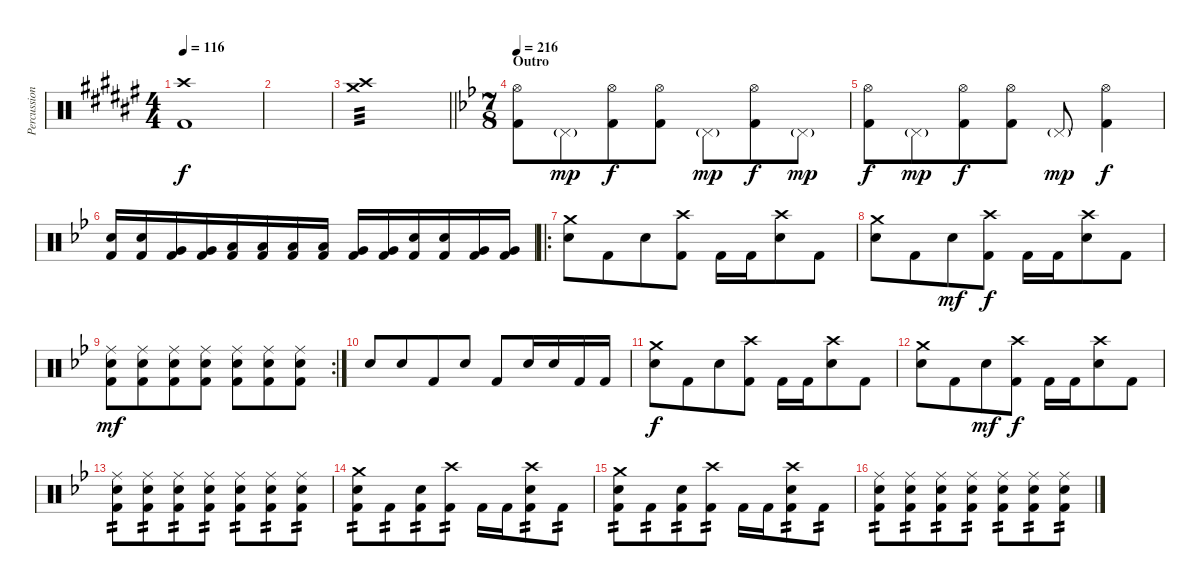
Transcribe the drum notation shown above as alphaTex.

\track ("Percussion" "Percussion") {instrument percussion}
\staff {score}
\articulation defaults
\ts (4 4)
\tempo 116
\clef neutral
\ks d#minor
("Crash high (hit)" "Kick (hit) 2").1{dy f} |
|
\barLineRight lightlight
("Crash high (hit)" "Crash medium (hit)").1{tp 3 volume 16} |
\ts (7 8)
\section ("" "Outro")
\tempo 216
\ks gminor
("Hi-Hat (open)" "Kick (hit) 2").8 "Pedal Hi-Hat (hit)"{g}.8{dy mp} ("Hi-Hat (open)" "Kick (hit) 2").8{dy f} ("Hi-Hat (open)" "Kick (hit) 2").8 "Pedal Hi-Hat (hit)"{g}.8{dy mp} ("Hi-Hat (open)" "Kick (hit) 2").8{dy f} "Pedal Hi-Hat (hit)"{g}.8{dy mp} |
("Hi-Hat (open)" "Kick (hit) 2").8{dy f} "Pedal Hi-Hat (hit)"{g}.8{dy mp} ("Hi-Hat (open)" "Kick (hit) 2").8{dy f} ("Hi-Hat (open)" "Kick (hit) 2").8 "Pedal Hi-Hat (hit)"{g}.8{dy mp} ("Hi-Hat (open)" "Kick (hit) 2").4{dy f} |
("Electric Snare (hit)" "Kick (hit) 2").16 ("Electric Snare (hit)" "Kick (hit) 2").16 ("Very Low Tom (hit)" "Kick (hit) 2").16 ("Very Low Tom (hit)" "Kick (hit) 2").16 ("Low Floor Tom (hit)" "Kick (hit) 2").16 ("Low Floor Tom (hit)" "Kick (hit) 2").16 ("Low Floor Tom (hit)" "Kick (hit) 2").16 ("Low Floor Tom (hit)" "Kick (hit) 2").16 ("Very Low Tom (hit)" "Kick (hit) 2").16 ("Very Low Tom (hit)" "Kick (hit) 2").16 ("Electric Snare (hit)" "Kick (hit) 2").16 ("Electric Snare (hit)" "Kick (hit) 2").16 ("Very Low Tom (hit)" "Kick (hit) 2").16 ("Very Low Tom (hit)" "Kick (hit) 2").16 |
\ro
("Crash medium (hit)" "Electric Snare (hit)").8 "Kick (hit) 2".8 "Electric Snare (hit)".8 ("Crash high (hit)" "Kick (hit) 2").8 "Kick (hit) 2".16 "Kick (hit) 2".16 ("Crash high (hit)" "Electric Snare (hit)").8 "Kick (hit) 2".8 |
("Crash medium (hit)" "Electric Snare (hit)").8 "Kick (hit) 2".8 "Electric Snare (hit)".8{dy mf} ("Crash high (hit)" "Kick (hit) 2").8{dy f} "Kick (hit) 2".16 "Kick (hit) 2".16 ("Crash high (hit)" "Electric Snare (hit)").8 "Kick (hit) 2".8 |
\rc 2
("Ride (middle)" "Electric Snare (hit)" "Kick (hit) 2").8{dy mf} ("Ride (middle)" "Electric Snare (hit)" "Kick (hit) 2").8 ("Ride (middle)" "Electric Snare (hit)" "Kick (hit) 2").8 ("Ride (middle)" "Electric Snare (hit)" "Kick (hit) 2").8 ("Ride (middle)" "Electric Snare (hit)" "Kick (hit) 2").8 ("Ride (middle)" "Electric Snare (hit)" "Kick (hit) 2").8 ("Ride (middle)" "Electric Snare (hit)" "Kick (hit) 2").8 |
"Electric Snare (hit)".8 "Electric Snare (hit)".8 "Kick (hit) 2".8 "Electric Snare (hit)".8 "Kick (hit) 2".8 "Electric Snare (hit)".16 "Electric Snare (hit)".16 "Kick (hit) 2".16 "Kick (hit) 2".16 |
("Crash medium (hit)" "Electric Snare (hit)").8{dy f} "Kick (hit) 2".8 "Electric Snare (hit)".8 ("Crash high (hit)" "Kick (hit) 2").8 "Kick (hit) 2".16 "Kick (hit) 2".16 ("Crash high (hit)" "Electric Snare (hit)").8 "Kick (hit) 2".8 |
("Crash medium (hit)" "Electric Snare (hit)").8 "Kick (hit) 2".8 "Electric Snare (hit)".8{dy mf} ("Crash high (hit)" "Kick (hit) 2").8{dy f} "Kick (hit) 2".16 "Kick (hit) 2".16 ("Crash high (hit)" "Electric Snare (hit)").8 "Kick (hit) 2".8 |
("Ride (middle)" "Electric Snare (hit)" "Kick (hit) 2").8{tp 2} ("Ride (middle)" "Electric Snare (hit)" "Kick (hit) 2").8{tp 2} ("Ride (middle)" "Electric Snare (hit)" "Kick (hit) 2").8{tp 2} ("Ride (middle)" "Electric Snare (hit)" "Kick (hit) 2").8{tp 2} ("Ride (middle)" "Electric Snare (hit)" "Kick (hit) 2").8{tp 2} ("Ride (middle)" "Electric Snare (hit)" "Kick (hit) 2").8{tp 2} ("Ride (middle)" "Electric Snare (hit)" "Kick (hit) 2").8{tp 2} |
("Crash medium (hit)" "Electric Snare (hit)" "Kick (hit) 2").8{tp 2} "Kick (hit) 2".8{tp 2} ("Electric Snare (hit)" "Kick (hit) 2").8{tp 2} ("Crash high (hit)" "Kick (hit) 2").8{tp 2} "Kick (hit) 2".16 "Kick (hit) 2".16 ("Crash high (hit)" "Electric Snare (hit)" "Kick (hit) 2").8{tp 2} "Kick (hit) 2".8{tp 2} |
("Crash medium (hit)" "Electric Snare (hit)" "Kick (hit) 2").8{tp 2} "Kick (hit) 2".8{tp 2} ("Electric Snare (hit)" "Kick (hit) 2").8{tp 2} ("Crash high (hit)" "Kick (hit) 2").8{tp 2} "Kick (hit) 2".16 "Kick (hit) 2".16 ("Crash high (hit)" "Electric Snare (hit)" "Kick (hit) 2").8{tp 2} "Kick (hit) 2".8{tp 2} |
("Ride (middle)" "Electric Snare (hit)" "Kick (hit) 2").8{tp 2} ("Ride (middle)" "Electric Snare (hit)" "Kick (hit) 2").8{tp 2} ("Ride (middle)" "Electric Snare (hit)" "Kick (hit) 2").8{tp 2} ("Ride (middle)" "Electric Snare (hit)" "Kick (hit) 2").8{tp 2} ("Ride (middle)" "Electric Snare (hit)" "Kick (hit) 2").8{tp 2} ("Ride (middle)" "Electric Snare (hit)" "Kick (hit) 2").8{tp 2} ("Ride (middle)" "Electric Snare (hit)" "Kick (hit) 2").8{tp 2}
